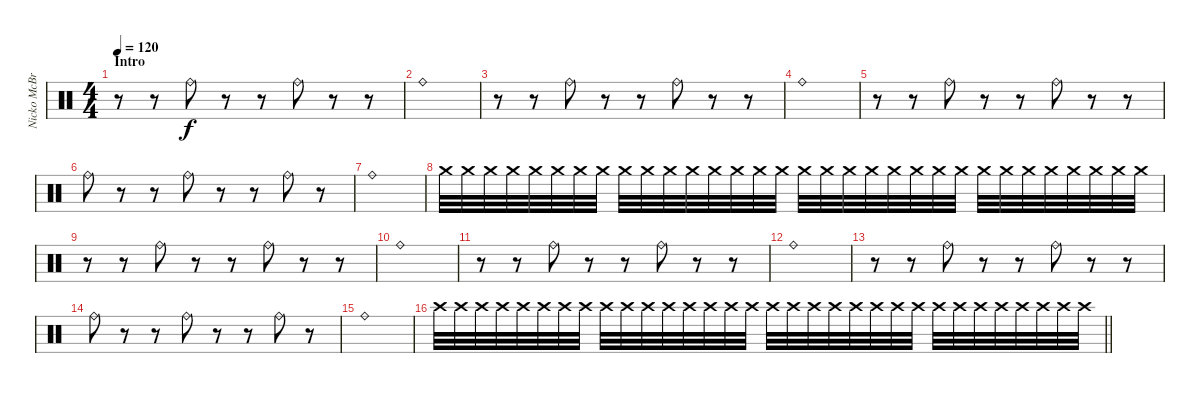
\track ("Nicko McBrain" "Nicko McBr") {instrument percussion}
\staff {score}
\articulation defaults
\ts (4 4)
\section ("" "Intro")
\tempo 120
\clef neutral
\ks c
r.8{dy f} r.8 "Ride (bell)".8{balance 16} r.8 r.8 "Ride (bell)".8{balance 8} r.8 r.8 |
"Ride (bell)".1{balance 0} |
r.8 r.8 "Ride (bell)".8{balance 16} r.8 r.8 "Ride (bell)".8{balance 8} r.8 r.8 |
"Ride (bell)".1{balance 0} |
r.8 r.8 "Ride (bell)".8{balance 12} r.8 r.8 "Ride (bell)".8{balance 16} r.8 r.8 |
"Ride (bell)".8{balance 12} r.8 r.8 "Ride (bell)".8{balance 8} r.8 r.8 "Ride (bell)".8{balance 4} r.8 |
"Ride (bell)".1{volume 0 balance 0} |
"Crash medium (hit)".32{volume 4 balance 8} "Crash medium (hit)".32 "Crash medium (hit)".32 "Crash medium (hit)".32 "Crash medium (hit)".32 "Crash medium (hit)".32 "Crash medium (hit)".32 "Crash medium (hit)".32 "Crash medium (hit)".32 "Crash medium (hit)".32 "Crash medium (hit)".32 "Crash medium (hit)".32 "Crash medium (hit)".32 "Crash medium (hit)".32 "Crash medium (hit)".32 "Crash medium (hit)".32 "Crash medium (hit)".32 "Crash medium (hit)".32 "Crash medium (hit)".32 "Crash medium (hit)".32 "Crash medium (hit)".32 "Crash medium (hit)".32 "Crash medium (hit)".32 "Crash medium (hit)".32 "Crash medium (hit)".32 "Crash medium (hit)".32 "Crash medium (hit)".32 "Crash medium (hit)".32 "Crash medium (hit)".32 "Crash medium (hit)".32 "Crash medium (hit)".32 "Crash medium (hit)".32 |
r.8 r.8 "Ride (bell)".8{volume 10 balance 16} r.8 r.8 "Ride (bell)".8{balance 8} r.8 r.8 |
"Ride (bell)".1{balance 0} |
r.8 r.8 "Ride (bell)".8{balance 16} r.8 r.8 "Ride (bell)".8{balance 8} r.8 r.8 |
"Ride (bell)".1{balance 0} |
r.8 r.8 "Ride (bell)".8{balance 12} r.8 r.8 "Ride (bell)".8{balance 16} r.8 r.8 |
"Ride (bell)".8{balance 12} r.8 r.8 "Ride (bell)".8{balance 8} r.8 r.8 "Ride (bell)".8{balance 4} r.8 |
"Ride (bell)".1{volume 0 balance 0} |
\barLineRight lightlight "Crash high (hit)".32{volume 4 balance 8} "Crash high (hit)".32 "Crash high (hit)".32 "Crash high (hit)".32 "Crash high (hit)".32 "Crash high (hit)".32 "Crash high (hit)".32 "Crash high (hit)".32 "Crash high (hit)".32 "Crash high (hit)".32 "Crash high (hit)".32 "Crash high (hit)".32 "Crash high (hit)".32 "Crash high (hit)".32 "Crash high (hit)".32 "Crash high (hit)".32 "Crash high (hit)".32 "Crash high (hit)".32 "Crash high (hit)".32 "Crash high (hit)".32 "Crash high (hit)".32 "Crash high (hit)".32 "Crash high (hit)".32 "Crash high (hit)".32 "Crash high (hit)".32 "Crash high (hit)".32 "Crash high (hit)".32 "Crash high (hit)".32 "Crash high (hit)".32 "Crash high (hit)".32 "Crash high (hit)".32 "Crash high (hit)".32
